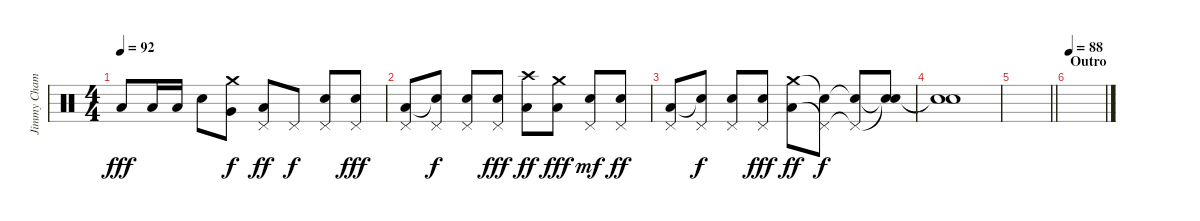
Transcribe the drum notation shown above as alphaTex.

\track ("Jimmy Chamberlin" "Jimmy Cham") {instrument percussion}
\staff {score}
\articulation defaults
\ts (4 4)
\tempo 92
\clef neutral
\ks c "Low Floor Tom (hit)".8{dy fff} "Low Tom (hit)".16 "Low Tom (hit)".16 "Snare (hit) 2".8
("Crash medium (hit)" "Very Low Tom (hit)").8{dy f} ("Pedal Hi-Hat (hit)" "Low Tom (hit)").8{dy ff} "Pedal Hi-Hat (hit)".8{dy f} ("Pedal Hi-Hat (hit)" "Snare (hit) 2").8 ("Pedal Hi-Hat (hit)" "Snare (hit) 2").8{dy fff} |
("Pedal Hi-Hat (hit)" "Low Tom (hit)").8 ("Pedal Hi-Hat (hit)" "Snare (hit)"{t}).8{dy f} ("Pedal Hi-Hat (hit)" "Snare (hit) 2").8 ("Pedal Hi-Hat (hit)" "Snare (hit) 2").8{dy fff} ("Crash high (hit)" "Low Tom (hit)").8{dy ff} ("Crash medium (hit)" "Low Floor Tom (hit)").8{dy fff} ("Pedal Hi-Hat (hit)" "Snare (hit) 2").8{dy mf} ("Pedal Hi-Hat (hit)" "Snare (hit) 2").8{dy ff} |
("Pedal Hi-Hat (hit)" "Low Tom (hit)").8 ("Pedal Hi-Hat (hit)" "Snare (hit)"{t}).8{dy f} ("Pedal Hi-Hat (hit)" "Snare (hit) 2").8 ("Pedal Hi-Hat (hit)" "Snare (hit) 2").8{dy fff} ("Low Floor Tom (hit)" "Crash medium (hit)").8{dy ff} ("Pedal Hi-Hat (hit)"{t} "Snare (hit)"{t}).8{dy f} ("Pedal Hi-Hat (hit)"{t} "Snare (hit)"{t}).8 ("Snare (hit)"{t} "Snare (hit)"{t}).8 |
("Snare (hit)"{t} "Snare (hit)"{t}).1 |
\barLineRight lightlight
|
\section ("" "Outro")
\tempo 88
